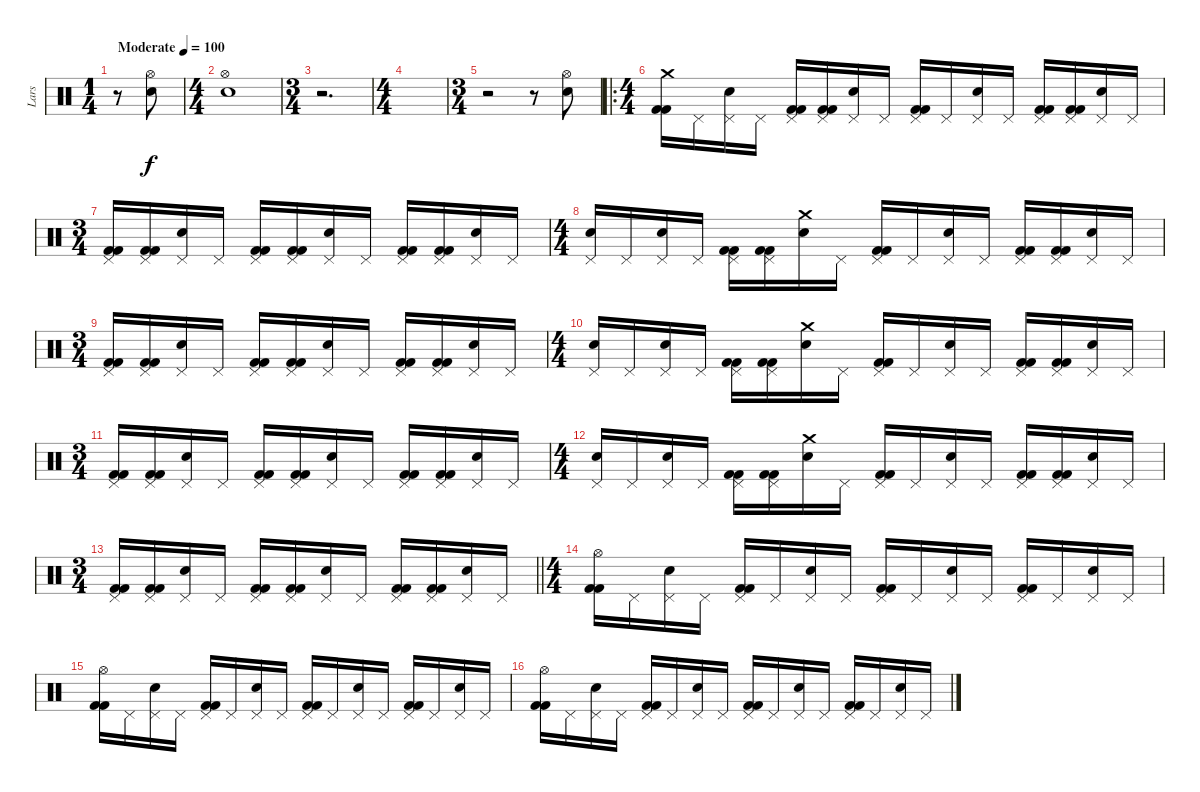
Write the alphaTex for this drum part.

\track ("Lars" "Lars") {instrument percussion}
\staff {score}
\articulation defaults
\ts (1 4)
\tempo (100 "Moderate")
\clef neutral
\ks c
r.8{dy f} ("Electric Snare (hit)" "Hi-Hat (open)").8 |
\ts (4 4)
("Electric Snare (hit)" "Hi-Hat (open)").1 |
\ts (3 4)
r.2{d} |
\ts (4 4)
|
\ts (3 4)
r.2 r.8 ("Electric Snare (hit)" "Hi-Hat (open)").8 |
\ro
\ts (4 4)
("Kick (hit) 2" "Kick (hit) 2" "Crash medium (hit)").16 "Pedal Hi-Hat (hit)".16 ("Electric Snare (hit)" "Pedal Hi-Hat (hit)").16 "Pedal Hi-Hat (hit)".16 ("Kick (hit) 2" "Kick (hit) 2" "Pedal Hi-Hat (hit)").16 ("Kick (hit) 2" "Kick (hit) 2" "Pedal Hi-Hat (hit)").16 ("Electric Snare (hit)" "Pedal Hi-Hat (hit)").16 "Pedal Hi-Hat (hit)".16 ("Kick (hit) 2" "Kick (hit) 2" "Pedal Hi-Hat (hit)").16 "Pedal Hi-Hat (hit)".16 ("Electric Snare (hit)" "Pedal Hi-Hat (hit)").16 "Pedal Hi-Hat (hit)".16 ("Kick (hit) 2" "Kick (hit) 2" "Pedal Hi-Hat (hit)").16 ("Kick (hit) 2" "Kick (hit) 2" "Pedal Hi-Hat (hit)").16 ("Electric Snare (hit)" "Pedal Hi-Hat (hit)").16 "Pedal Hi-Hat (hit)".16 |
\ts (3 4)
("Kick (hit) 2" "Kick (hit) 2" "Pedal Hi-Hat (hit)").16 ("Kick (hit) 2" "Kick (hit) 2" "Pedal Hi-Hat (hit)").16 ("Electric Snare (hit)" "Pedal Hi-Hat (hit)").16 "Pedal Hi-Hat (hit)".16 ("Kick (hit) 2" "Kick (hit) 2" "Pedal Hi-Hat (hit)").16 ("Kick (hit) 2" "Kick (hit) 2" "Pedal Hi-Hat (hit)").16 ("Electric Snare (hit)" "Pedal Hi-Hat (hit)").16 "Pedal Hi-Hat (hit)".16 ("Kick (hit) 2" "Kick (hit) 2" "Pedal Hi-Hat (hit)").16 ("Kick (hit) 2" "Kick (hit) 2" "Pedal Hi-Hat (hit)").16 ("Electric Snare (hit)" "Pedal Hi-Hat (hit)").16 "Pedal Hi-Hat (hit)".16 |
\ts (4 4)
("Electric Snare (hit)" "Pedal Hi-Hat (hit)").16 "Pedal Hi-Hat (hit)".16 ("Electric Snare (hit)" "Pedal Hi-Hat (hit)").16 "Pedal Hi-Hat (hit)".16 ("Kick (hit) 2" "Kick (hit) 2" "Pedal Hi-Hat (hit)").16 ("Kick (hit) 2" "Kick (hit) 2" "Pedal Hi-Hat (hit)").16 ("Electric Snare (hit)" "Crash medium (hit)").16 "Pedal Hi-Hat (hit)".16 ("Kick (hit) 2" "Kick (hit) 2" "Pedal Hi-Hat (hit)").16 "Pedal Hi-Hat (hit)".16 ("Electric Snare (hit)" "Pedal Hi-Hat (hit)").16 "Pedal Hi-Hat (hit)".16 ("Kick (hit) 2" "Kick (hit) 2" "Pedal Hi-Hat (hit)").16 ("Kick (hit) 2" "Kick (hit) 2" "Pedal Hi-Hat (hit)").16 ("Electric Snare (hit)" "Pedal Hi-Hat (hit)").16 "Pedal Hi-Hat (hit)".16 |
\ts (3 4)
("Kick (hit) 2" "Kick (hit) 2" "Pedal Hi-Hat (hit)").16 ("Kick (hit) 2" "Kick (hit) 2" "Pedal Hi-Hat (hit)").16 ("Electric Snare (hit)" "Pedal Hi-Hat (hit)").16 "Pedal Hi-Hat (hit)".16 ("Kick (hit) 2" "Kick (hit) 2" "Pedal Hi-Hat (hit)").16 ("Kick (hit) 2" "Kick (hit) 2" "Pedal Hi-Hat (hit)").16 ("Electric Snare (hit)" "Pedal Hi-Hat (hit)").16 "Pedal Hi-Hat (hit)".16 ("Kick (hit) 2" "Kick (hit) 2" "Pedal Hi-Hat (hit)").16 ("Kick (hit) 2" "Kick (hit) 2" "Pedal Hi-Hat (hit)").16 ("Electric Snare (hit)" "Pedal Hi-Hat (hit)").16 "Pedal Hi-Hat (hit)".16 |
\ts (4 4)
("Electric Snare (hit)" "Pedal Hi-Hat (hit)").16 "Pedal Hi-Hat (hit)".16 ("Electric Snare (hit)" "Pedal Hi-Hat (hit)").16 "Pedal Hi-Hat (hit)".16 ("Kick (hit) 2" "Kick (hit) 2" "Pedal Hi-Hat (hit)").16 ("Kick (hit) 2" "Kick (hit) 2" "Pedal Hi-Hat (hit)").16 ("Electric Snare (hit)" "Crash medium (hit)").16 "Pedal Hi-Hat (hit)".16 ("Kick (hit) 2" "Kick (hit) 2" "Pedal Hi-Hat (hit)").16 "Pedal Hi-Hat (hit)".16 ("Electric Snare (hit)" "Pedal Hi-Hat (hit)").16 "Pedal Hi-Hat (hit)".16 ("Kick (hit) 2" "Kick (hit) 2" "Pedal Hi-Hat (hit)").16 ("Kick (hit) 2" "Kick (hit) 2" "Pedal Hi-Hat (hit)").16 ("Electric Snare (hit)" "Pedal Hi-Hat (hit)").16 "Pedal Hi-Hat (hit)".16 |
\ts (3 4)
("Kick (hit) 2" "Kick (hit) 2" "Pedal Hi-Hat (hit)").16 ("Kick (hit) 2" "Kick (hit) 2" "Pedal Hi-Hat (hit)").16 ("Electric Snare (hit)" "Pedal Hi-Hat (hit)").16 "Pedal Hi-Hat (hit)".16 ("Kick (hit) 2" "Kick (hit) 2" "Pedal Hi-Hat (hit)").16 ("Kick (hit) 2" "Kick (hit) 2" "Pedal Hi-Hat (hit)").16 ("Electric Snare (hit)" "Pedal Hi-Hat (hit)").16 "Pedal Hi-Hat (hit)".16 ("Kick (hit) 2" "Kick (hit) 2" "Pedal Hi-Hat (hit)").16 ("Kick (hit) 2" "Kick (hit) 2" "Pedal Hi-Hat (hit)").16 ("Electric Snare (hit)" "Pedal Hi-Hat (hit)").16 "Pedal Hi-Hat (hit)".16 |
\ts (4 4)
("Electric Snare (hit)" "Pedal Hi-Hat (hit)").16 "Pedal Hi-Hat (hit)".16 ("Electric Snare (hit)" "Pedal Hi-Hat (hit)").16 "Pedal Hi-Hat (hit)".16 ("Kick (hit) 2" "Kick (hit) 2" "Pedal Hi-Hat (hit)").16 ("Kick (hit) 2" "Kick (hit) 2" "Pedal Hi-Hat (hit)").16 ("Electric Snare (hit)" "Crash medium (hit)").16 "Pedal Hi-Hat (hit)".16 ("Kick (hit) 2" "Kick (hit) 2" "Pedal Hi-Hat (hit)").16 "Pedal Hi-Hat (hit)".16 ("Electric Snare (hit)" "Pedal Hi-Hat (hit)").16 "Pedal Hi-Hat (hit)".16 ("Kick (hit) 2" "Kick (hit) 2" "Pedal Hi-Hat (hit)").16 ("Kick (hit) 2" "Kick (hit) 2" "Pedal Hi-Hat (hit)").16 ("Electric Snare (hit)" "Pedal Hi-Hat (hit)").16 "Pedal Hi-Hat (hit)".16 |
\ts (3 4)
\barLineRight lightlight
("Kick (hit) 2" "Kick (hit) 2" "Pedal Hi-Hat (hit)").16 ("Kick (hit) 2" "Kick (hit) 2" "Pedal Hi-Hat (hit)").16 ("Electric Snare (hit)" "Pedal Hi-Hat (hit)").16 "Pedal Hi-Hat (hit)".16 ("Kick (hit) 2" "Kick (hit) 2" "Pedal Hi-Hat (hit)").16 ("Kick (hit) 2" "Kick (hit) 2" "Pedal Hi-Hat (hit)").16 ("Electric Snare (hit)" "Pedal Hi-Hat (hit)").16 "Pedal Hi-Hat (hit)".16 ("Kick (hit) 2" "Kick (hit) 2" "Pedal Hi-Hat (hit)").16 ("Kick (hit) 2" "Kick (hit) 2" "Pedal Hi-Hat (hit)").16 ("Electric Snare (hit)" "Pedal Hi-Hat (hit)").16 "Pedal Hi-Hat (hit)".16 |
\ts (4 4)
\section ("" "")
("Kick (hit) 2" "Kick (hit) 2" "Hi-Hat (open)").16 "Pedal Hi-Hat (hit)".16 ("Electric Snare (hit)" "Pedal Hi-Hat (hit)").16 "Pedal Hi-Hat (hit)".16 ("Kick (hit) 2" "Kick (hit) 2" "Pedal Hi-Hat (hit)").16 "Pedal Hi-Hat (hit)".16 ("Electric Snare (hit)" "Pedal Hi-Hat (hit)").16 "Pedal Hi-Hat (hit)".16 ("Kick (hit) 2" "Kick (hit) 2" "Pedal Hi-Hat (hit)").16 "Pedal Hi-Hat (hit)".16 ("Electric Snare (hit)" "Pedal Hi-Hat (hit)").16 "Pedal Hi-Hat (hit)".16 ("Kick (hit) 2" "Kick (hit) 2" "Pedal Hi-Hat (hit)").16 "Pedal Hi-Hat (hit)".16 ("Electric Snare (hit)" "Pedal Hi-Hat (hit)").16 "Pedal Hi-Hat (hit)".16 |
("Kick (hit) 2" "Kick (hit) 2" "Hi-Hat (open)").16 "Pedal Hi-Hat (hit)".16 ("Electric Snare (hit)" "Pedal Hi-Hat (hit)").16 "Pedal Hi-Hat (hit)".16 ("Kick (hit) 2" "Kick (hit) 2" "Pedal Hi-Hat (hit)").16 "Pedal Hi-Hat (hit)".16 ("Electric Snare (hit)" "Pedal Hi-Hat (hit)").16 "Pedal Hi-Hat (hit)".16 ("Kick (hit) 2" "Kick (hit) 2" "Pedal Hi-Hat (hit)").16 "Pedal Hi-Hat (hit)".16 ("Electric Snare (hit)" "Pedal Hi-Hat (hit)").16 "Pedal Hi-Hat (hit)".16 ("Kick (hit) 2" "Kick (hit) 2" "Pedal Hi-Hat (hit)").16 "Pedal Hi-Hat (hit)".16 ("Electric Snare (hit)" "Pedal Hi-Hat (hit)").16 "Pedal Hi-Hat (hit)".16 |
("Kick (hit) 2" "Kick (hit) 2" "Hi-Hat (open)").16 "Pedal Hi-Hat (hit)".16 ("Electric Snare (hit)" "Pedal Hi-Hat (hit)").16 "Pedal Hi-Hat (hit)".16 ("Kick (hit) 2" "Kick (hit) 2" "Pedal Hi-Hat (hit)").16 "Pedal Hi-Hat (hit)".16 ("Electric Snare (hit)" "Pedal Hi-Hat (hit)").16 "Pedal Hi-Hat (hit)".16 ("Kick (hit) 2" "Kick (hit) 2" "Pedal Hi-Hat (hit)").16 "Pedal Hi-Hat (hit)".16 ("Electric Snare (hit)" "Pedal Hi-Hat (hit)").16 "Pedal Hi-Hat (hit)".16 ("Kick (hit) 2" "Kick (hit) 2" "Pedal Hi-Hat (hit)").16 "Pedal Hi-Hat (hit)".16 ("Electric Snare (hit)" "Pedal Hi-Hat (hit)").16 "Pedal Hi-Hat (hit)".16
